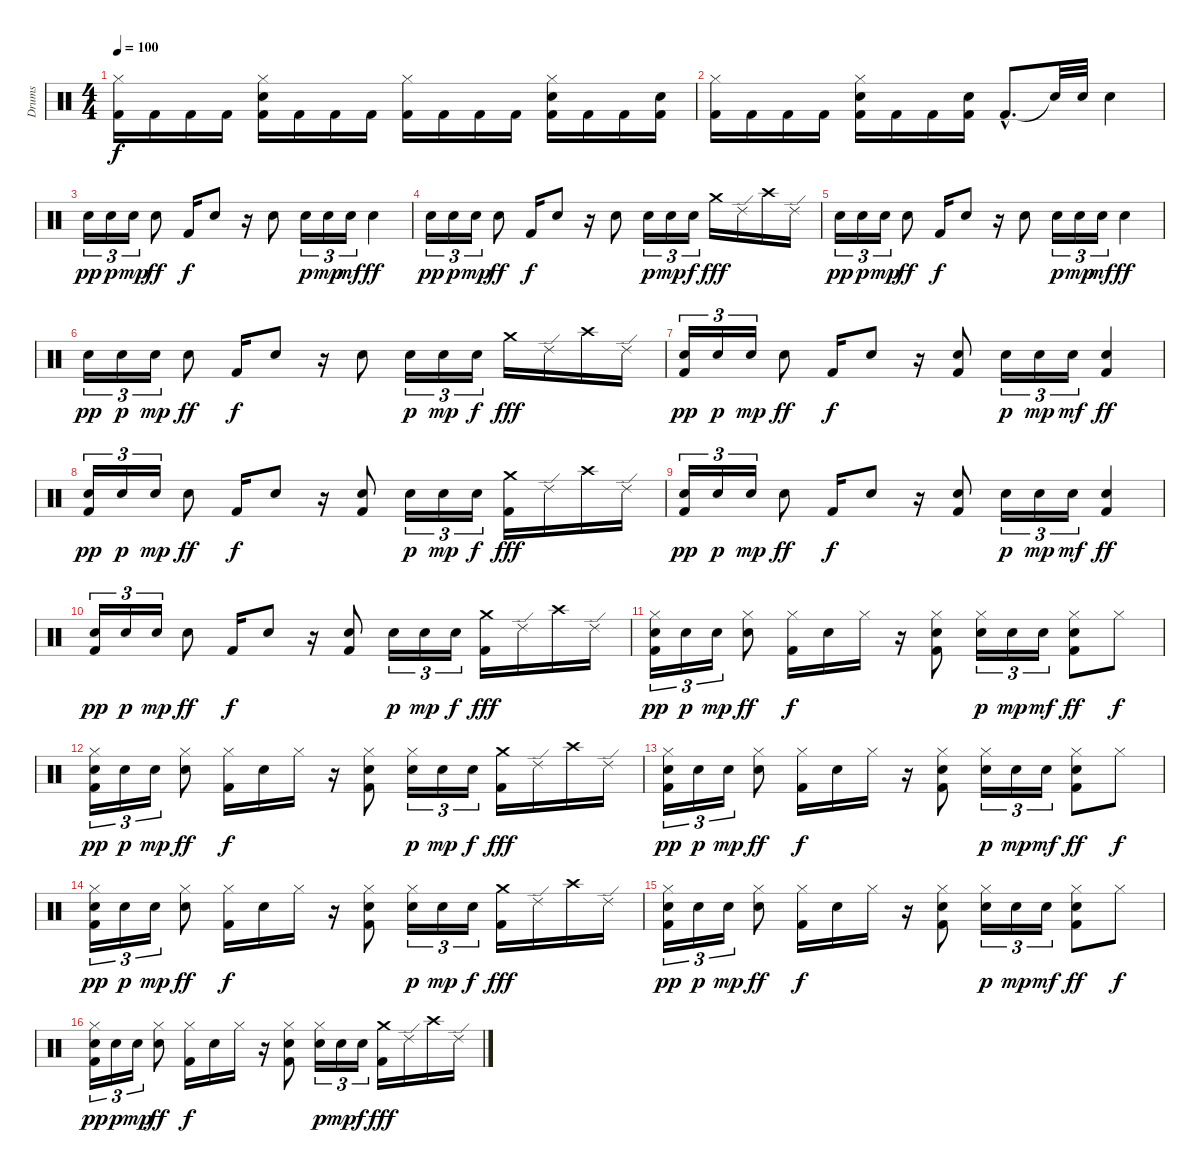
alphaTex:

\track ("Drums" "Drums") {instrument percussion}
\staff {score}
\articulation defaults
\ts (4 4)
\tempo 100
\clef neutral
\ks c
("Hi-Hat (closed)" "Kick (hit) 2").16{dy f} "Kick (hit) 2".16 "Kick (hit) 2".16 "Kick (hit) 2".16 ("Hi-Hat (closed)" "Kick (hit) 2" "Snare (hit) 2").16 "Kick (hit) 2".16 "Kick (hit) 2".16 "Kick (hit) 2".16 ("Hi-Hat (closed)" "Kick (hit) 2").16 "Kick (hit) 2".16 "Kick (hit) 2".16 "Kick (hit) 2".16 ("Hi-Hat (closed)" "Kick (hit) 2" "Snare (hit) 2").16 "Kick (hit) 2".16 "Kick (hit) 2".16 ("Kick (hit) 2" "Snare (hit) 2").16 |
("Hi-Hat (closed)" "Kick (hit) 2").16 "Kick (hit) 2".16 "Kick (hit) 2".16 "Kick (hit) 2".16 ("Hi-Hat (closed)" "Kick (hit) 2" "Snare (hit) 2").16 "Kick (hit) 2".16 "Kick (hit) 2".16 ("Kick (hit) 2" "Snare (hit) 2").16 "Kick (hit) 2"{hac}.8{d} "Snare (hit)"{t}.32 "Snare (hit) 2".32 "Snare (hit) 2".4 |
"Snare (hit) 2".16{tu (3 2) dy pp} "Snare (hit) 2".16{tu (3 2) dy p} "Snare (hit) 2".16{tu (3 2) dy mp} "Snare (hit) 2".8{dy ff} "Kick (hit) 2".16{dy f} "Snare (hit) 2".8 r.16 "Snare (hit) 2".8 "Snare (hit) 2".16{tu (3 2) dy p} "Snare (hit) 2".16{tu (3 2) dy mp} "Snare (hit) 2".16{tu (3 2) dy mf} "Snare (hit) 2".4{dy ff} |
"Snare (hit) 2".16{tu (3 2) dy pp} "Snare (hit) 2".16{tu (3 2) dy p} "Snare (hit) 2".16{tu (3 2) dy mp} "Snare (hit) 2".8{dy ff} "Kick (hit) 2".16{dy f} "Snare (hit) 2".8 r.16 "Snare (hit) 2".8 "Snare (hit) 2".16{tu (3 2) dy p} "Snare (hit) 2".16{tu (3 2) dy mp} "Snare (hit) 2".16{tu (3 2) dy f} "Crash medium (hit)".16{dy fff} "Ride (edge) 2".16 "Crash high (hit)".16 "Ride (edge) 2".16 |
"Snare (hit) 2".16{tu (3 2) dy pp} "Snare (hit) 2".16{tu (3 2) dy p} "Snare (hit) 2".16{tu (3 2) dy mp} "Snare (hit) 2".8{dy ff} "Kick (hit) 2".16{dy f} "Snare (hit) 2".8 r.16 "Snare (hit) 2".8 "Snare (hit) 2".16{tu (3 2) dy p} "Snare (hit) 2".16{tu (3 2) dy mp} "Snare (hit) 2".16{tu (3 2) dy mf} "Snare (hit) 2".4{dy ff} |
"Snare (hit) 2".16{tu (3 2) dy pp} "Snare (hit) 2".16{tu (3 2) dy p} "Snare (hit) 2".16{tu (3 2) dy mp} "Snare (hit) 2".8{dy ff} "Kick (hit) 2".16{dy f} "Snare (hit) 2".8 r.16 "Snare (hit) 2".8 "Snare (hit) 2".16{tu (3 2) dy p} "Snare (hit) 2".16{tu (3 2) dy mp} "Snare (hit) 2".16{tu (3 2) dy f} "Crash medium (hit)".16{dy fff} "Ride (edge) 2".16 "Crash high (hit)".16 "Ride (edge) 2".16 |
("Snare (hit) 2" "Kick (hit) 2").16{tu (3 2) dy pp} "Snare (hit) 2".16{tu (3 2) dy p} "Snare (hit) 2".16{tu (3 2) dy mp} "Snare (hit) 2".8{dy ff} "Kick (hit) 2".16{dy f} "Snare (hit) 2".8 r.16 ("Snare (hit) 2" "Kick (hit) 2").8 "Snare (hit) 2".16{tu (3 2) dy p} "Snare (hit) 2".16{tu (3 2) dy mp} "Snare (hit) 2".16{tu (3 2) dy mf} ("Snare (hit) 2" "Kick (hit) 2").4{dy ff} |
("Snare (hit) 2" "Kick (hit) 2").16{tu (3 2) dy pp} "Snare (hit) 2".16{tu (3 2) dy p} "Snare (hit) 2".16{tu (3 2) dy mp} "Snare (hit) 2".8{dy ff} "Kick (hit) 2".16{dy f} "Snare (hit) 2".8 r.16 ("Snare (hit) 2" "Kick (hit) 2").8 "Snare (hit) 2".16{tu (3 2) dy p} "Snare (hit) 2".16{tu (3 2) dy mp} "Snare (hit) 2".16{tu (3 2) dy f} ("Crash medium (hit)" "Kick (hit) 2").16{dy fff} "Ride (edge) 2".16 "Crash high (hit)".16 "Ride (edge) 2".16 |
("Snare (hit) 2" "Kick (hit) 2").16{tu (3 2) dy pp} "Snare (hit) 2".16{tu (3 2) dy p} "Snare (hit) 2".16{tu (3 2) dy mp} "Snare (hit) 2".8{dy ff} "Kick (hit) 2".16{dy f} "Snare (hit) 2".8 r.16 ("Snare (hit) 2" "Kick (hit) 2").8 "Snare (hit) 2".16{tu (3 2) dy p} "Snare (hit) 2".16{tu (3 2) dy mp} "Snare (hit) 2".16{tu (3 2) dy mf} ("Snare (hit) 2" "Kick (hit) 2").4{dy ff} |
("Snare (hit) 2" "Kick (hit) 2").16{tu (3 2) dy pp} "Snare (hit) 2".16{tu (3 2) dy p} "Snare (hit) 2".16{tu (3 2) dy mp} "Snare (hit) 2".8{dy ff} "Kick (hit) 2".16{dy f} "Snare (hit) 2".8 r.16 ("Snare (hit) 2" "Kick (hit) 2").8 "Snare (hit) 2".16{tu (3 2) dy p} "Snare (hit) 2".16{tu (3 2) dy mp} "Snare (hit) 2".16{tu (3 2) dy f} ("Crash medium (hit)" "Kick (hit) 2").16{dy fff} "Ride (edge) 2".16 "Crash high (hit)".16 "Ride (edge) 2".16 |
("Hi-Hat (closed)" "Snare (hit) 2" "Kick (hit) 2").16{tu (3 2) dy pp} "Snare (hit) 2".16{tu (3 2) dy p} "Snare (hit) 2".16{tu (3 2) dy mp} ("Hi-Hat (closed)" "Snare (hit) 2").8{dy ff} ("Hi-Hat (closed)" "Kick (hit) 2").16{dy f} "Snare (hit) 2".16 "Hi-Hat (closed)".16 r.16 ("Hi-Hat (closed)" "Snare (hit) 2" "Kick (hit) 2").8 ("Hi-Hat (closed)" "Snare (hit) 2").16{tu (3 2) dy p} "Snare (hit) 2".16{tu (3 2) dy mp} "Snare (hit) 2".16{tu (3 2) dy mf} ("Hi-Hat (closed)" "Snare (hit) 2" "Kick (hit) 2").8{dy ff} "Hi-Hat (closed)".8{dy f} |
("Hi-Hat (closed)" "Snare (hit) 2" "Kick (hit) 2").16{tu (3 2) dy pp} "Snare (hit) 2".16{tu (3 2) dy p} "Snare (hit) 2".16{tu (3 2) dy mp} ("Hi-Hat (closed)" "Snare (hit) 2").8{dy ff} ("Hi-Hat (closed)" "Kick (hit) 2").16{dy f} "Snare (hit) 2".16 "Hi-Hat (closed)".16 r.16 ("Hi-Hat (closed)" "Snare (hit) 2" "Kick (hit) 2").8 ("Hi-Hat (closed)" "Snare (hit) 2").16{tu (3 2) dy p} "Snare (hit) 2".16{tu (3 2) dy mp} "Snare (hit) 2".16{tu (3 2) dy f} ("Crash medium (hit)" "Kick (hit) 2").16{dy fff} "Ride (edge) 2".16 "Crash high (hit)".16 "Ride (edge) 2".16 |
("Hi-Hat (closed)" "Snare (hit) 2" "Kick (hit) 2").16{tu (3 2) dy pp} "Snare (hit) 2".16{tu (3 2) dy p} "Snare (hit) 2".16{tu (3 2) dy mp} ("Hi-Hat (closed)" "Snare (hit) 2").8{dy ff} ("Hi-Hat (closed)" "Kick (hit) 2").16{dy f} "Snare (hit) 2".16 "Hi-Hat (closed)".16 r.16 ("Hi-Hat (closed)" "Snare (hit) 2" "Kick (hit) 2").8 ("Hi-Hat (closed)" "Snare (hit) 2").16{tu (3 2) dy p} "Snare (hit) 2".16{tu (3 2) dy mp} "Snare (hit) 2".16{tu (3 2) dy mf} ("Hi-Hat (closed)" "Snare (hit) 2" "Kick (hit) 2").8{dy ff} "Hi-Hat (closed)".8{dy f} |
("Hi-Hat (closed)" "Snare (hit) 2" "Kick (hit) 2").16{tu (3 2) dy pp} "Snare (hit) 2".16{tu (3 2) dy p} "Snare (hit) 2".16{tu (3 2) dy mp} ("Hi-Hat (closed)" "Snare (hit) 2").8{dy ff} ("Hi-Hat (closed)" "Kick (hit) 2").16{dy f} "Snare (hit) 2".16 "Hi-Hat (closed)".16 r.16 ("Hi-Hat (closed)" "Snare (hit) 2" "Kick (hit) 2").8 ("Hi-Hat (closed)" "Snare (hit) 2").16{tu (3 2) dy p} "Snare (hit) 2".16{tu (3 2) dy mp} "Snare (hit) 2".16{tu (3 2) dy f} ("Crash medium (hit)" "Kick (hit) 2").16{dy fff} "Ride (edge) 2".16 "Crash high (hit)".16 "Ride (edge) 2".16 |
("Hi-Hat (closed)" "Snare (hit) 2" "Kick (hit) 2").16{tu (3 2) dy pp} "Snare (hit) 2".16{tu (3 2) dy p} "Snare (hit) 2".16{tu (3 2) dy mp} ("Hi-Hat (closed)" "Snare (hit) 2").8{dy ff} ("Hi-Hat (closed)" "Kick (hit) 2").16{dy f} "Snare (hit) 2".16 "Hi-Hat (closed)".16 r.16 ("Hi-Hat (closed)" "Snare (hit) 2" "Kick (hit) 2").8 ("Hi-Hat (closed)" "Snare (hit) 2").16{tu (3 2) dy p} "Snare (hit) 2".16{tu (3 2) dy mp} "Snare (hit) 2".16{tu (3 2) dy mf} ("Hi-Hat (closed)" "Snare (hit) 2" "Kick (hit) 2").8{dy ff} "Hi-Hat (closed)".8{dy f} |
("Hi-Hat (closed)" "Snare (hit) 2" "Kick (hit) 2").16{tu (3 2) dy pp} "Snare (hit) 2".16{tu (3 2) dy p} "Snare (hit) 2".16{tu (3 2) dy mp} ("Hi-Hat (closed)" "Snare (hit) 2").8{dy ff} ("Hi-Hat (closed)" "Kick (hit) 2").16{dy f} "Snare (hit) 2".16 "Hi-Hat (closed)".16 r.16 ("Hi-Hat (closed)" "Snare (hit) 2" "Kick (hit) 2").8 ("Hi-Hat (closed)" "Snare (hit) 2").16{tu (3 2) dy p} "Snare (hit) 2".16{tu (3 2) dy mp} "Snare (hit) 2".16{tu (3 2) dy f} ("Crash medium (hit)" "Kick (hit) 2").16{dy fff} "Ride (edge) 2".16 "Crash high (hit)".16 "Ride (edge) 2".16
